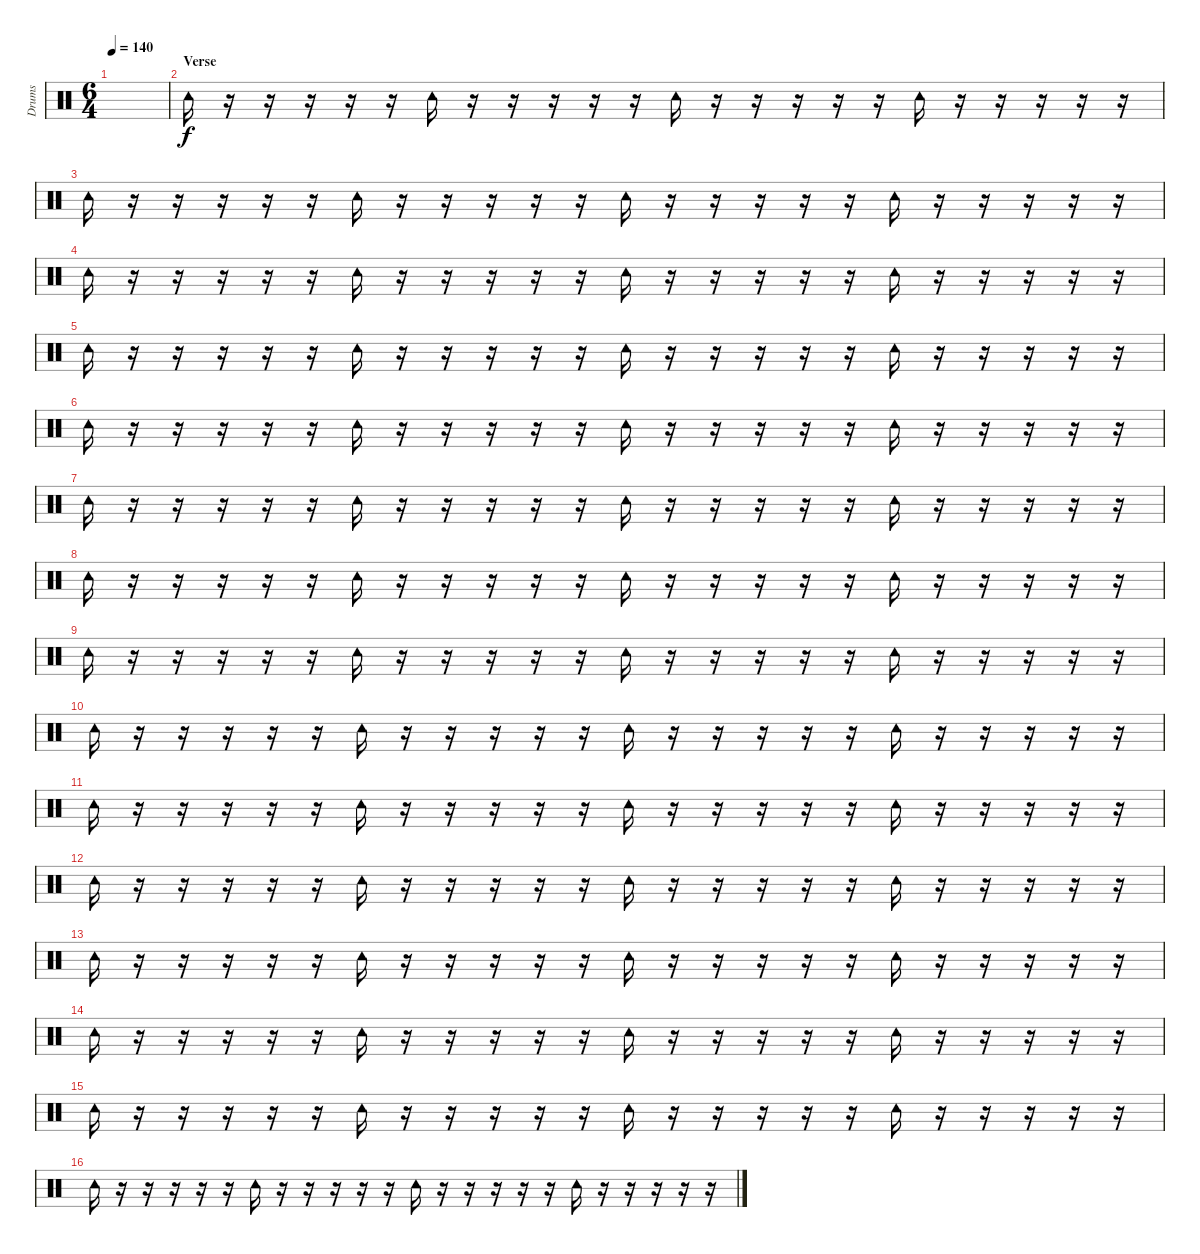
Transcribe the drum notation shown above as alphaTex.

\track ("Drums" "Drums") {instrument percussion}
\staff {score}
\articulation defaults
\ts (6 4)
\tempo 140
\clef neutral
\ks c
|
\section ("" "Verse")
"Tambourine (hit)".16 r.16 r.16 r.16 r.16 r.16 "Tambourine (hit)".16 r.16 r.16 r.16 r.16 r.16 "Tambourine (hit)".16 r.16 r.16 r.16 r.16 r.16 "Tambourine (hit)".16 r.16 r.16 r.16 r.16 r.16 |
"Tambourine (hit)".16 r.16 r.16 r.16 r.16 r.16 "Tambourine (hit)".16 r.16 r.16 r.16 r.16 r.16 "Tambourine (hit)".16 r.16 r.16 r.16 r.16 r.16 "Tambourine (hit)".16 r.16 r.16 r.16 r.16 r.16 |
"Tambourine (hit)".16 r.16 r.16 r.16 r.16 r.16 "Tambourine (hit)".16 r.16 r.16 r.16 r.16 r.16 "Tambourine (hit)".16 r.16 r.16 r.16 r.16 r.16 "Tambourine (hit)".16 r.16 r.16 r.16 r.16 r.16 |
"Tambourine (hit)".16 r.16 r.16 r.16 r.16 r.16 "Tambourine (hit)".16 r.16 r.16 r.16 r.16 r.16 "Tambourine (hit)".16 r.16 r.16 r.16 r.16 r.16 "Tambourine (hit)".16 r.16 r.16 r.16 r.16 r.16 |
"Tambourine (hit)".16 r.16 r.16 r.16 r.16 r.16 "Tambourine (hit)".16 r.16 r.16 r.16 r.16 r.16 "Tambourine (hit)".16 r.16 r.16 r.16 r.16 r.16 "Tambourine (hit)".16 r.16 r.16 r.16 r.16 r.16 |
"Tambourine (hit)".16 r.16 r.16 r.16 r.16 r.16 "Tambourine (hit)".16 r.16 r.16 r.16 r.16 r.16 "Tambourine (hit)".16 r.16 r.16 r.16 r.16 r.16 "Tambourine (hit)".16 r.16 r.16 r.16 r.16 r.16 |
"Tambourine (hit)".16 r.16 r.16 r.16 r.16 r.16 "Tambourine (hit)".16 r.16 r.16 r.16 r.16 r.16 "Tambourine (hit)".16 r.16 r.16 r.16 r.16 r.16 "Tambourine (hit)".16 r.16 r.16 r.16 r.16 r.16 |
"Tambourine (hit)".16 r.16 r.16 r.16 r.16 r.16 "Tambourine (hit)".16 r.16 r.16 r.16 r.16 r.16 "Tambourine (hit)".16 r.16 r.16 r.16 r.16 r.16 "Tambourine (hit)".16 r.16 r.16 r.16 r.16 r.16 |
"Tambourine (hit)".16 r.16 r.16 r.16 r.16 r.16 "Tambourine (hit)".16 r.16 r.16 r.16 r.16 r.16 "Tambourine (hit)".16 r.16 r.16 r.16 r.16 r.16 "Tambourine (hit)".16 r.16 r.16 r.16 r.16 r.16 |
"Tambourine (hit)".16 r.16 r.16 r.16 r.16 r.16 "Tambourine (hit)".16 r.16 r.16 r.16 r.16 r.16 "Tambourine (hit)".16 r.16 r.16 r.16 r.16 r.16 "Tambourine (hit)".16 r.16 r.16 r.16 r.16 r.16 |
"Tambourine (hit)".16 r.16 r.16 r.16 r.16 r.16 "Tambourine (hit)".16 r.16 r.16 r.16 r.16 r.16 "Tambourine (hit)".16 r.16 r.16 r.16 r.16 r.16 "Tambourine (hit)".16 r.16 r.16 r.16 r.16 r.16 |
"Tambourine (hit)".16 r.16 r.16 r.16 r.16 r.16 "Tambourine (hit)".16 r.16 r.16 r.16 r.16 r.16 "Tambourine (hit)".16 r.16 r.16 r.16 r.16 r.16 "Tambourine (hit)".16 r.16 r.16 r.16 r.16 r.16 |
"Tambourine (hit)".16 r.16 r.16 r.16 r.16 r.16 "Tambourine (hit)".16 r.16 r.16 r.16 r.16 r.16 "Tambourine (hit)".16 r.16 r.16 r.16 r.16 r.16 "Tambourine (hit)".16 r.16 r.16 r.16 r.16 r.16 |
"Tambourine (hit)".16 r.16 r.16 r.16 r.16 r.16 "Tambourine (hit)".16 r.16 r.16 r.16 r.16 r.16 "Tambourine (hit)".16 r.16 r.16 r.16 r.16 r.16 "Tambourine (hit)".16 r.16 r.16 r.16 r.16 r.16 |
"Tambourine (hit)".16 r.16 r.16 r.16 r.16 r.16 "Tambourine (hit)".16 r.16 r.16 r.16 r.16 r.16 "Tambourine (hit)".16 r.16 r.16 r.16 r.16 r.16 "Tambourine (hit)".16 r.16 r.16 r.16 r.16 r.16
